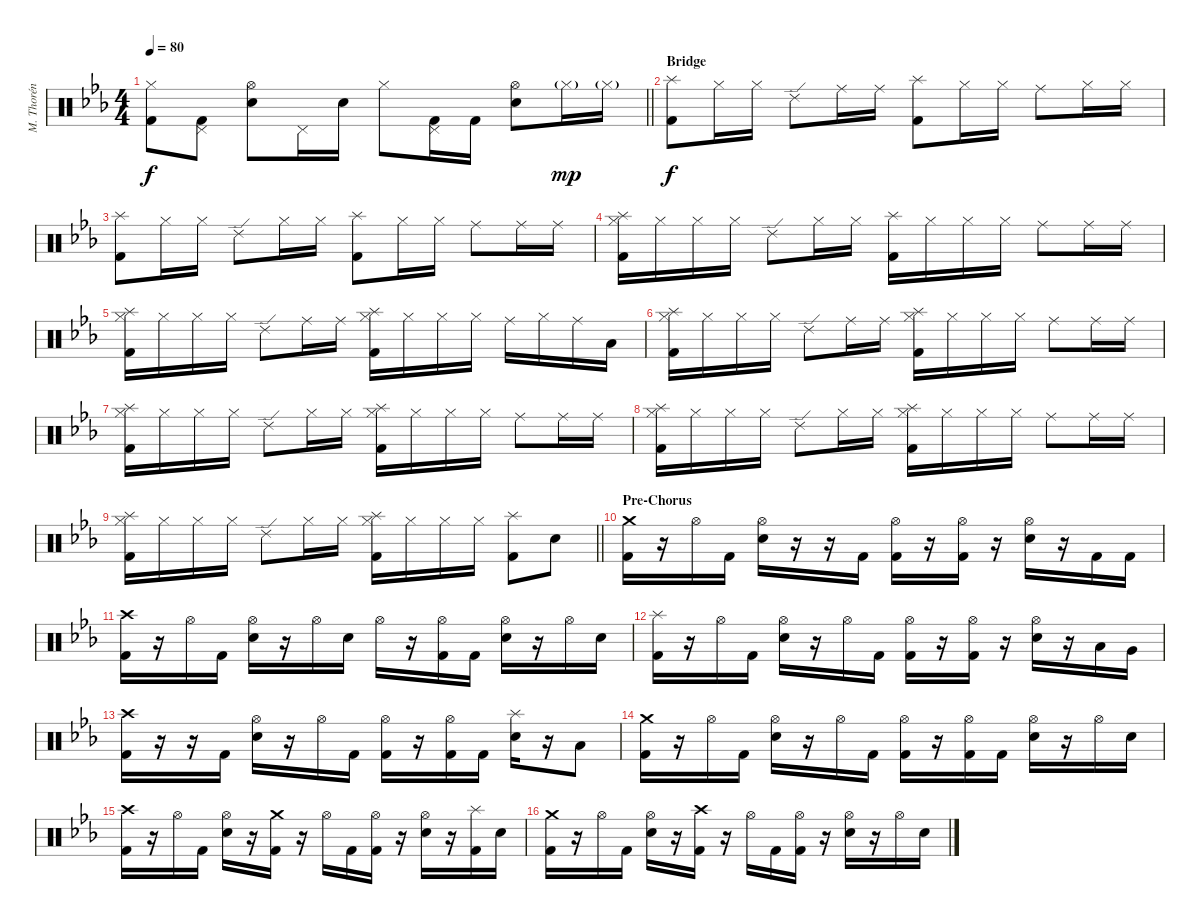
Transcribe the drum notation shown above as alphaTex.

\track ("M. Thorén (Drums)" "M. Thorén ") {instrument percussion}
\staff {score}
\articulation defaults
\ts (4 4)
\tempo 80
\clef neutral
\barLineRight lightlight
\ks eb
("Hi-Hat (closed)" "Kick (hit) 2").8{dy f} ("Pedal Hi-Hat (hit)" "Kick (hit) 2").8 ("Hi-Hat (open)" "Electric Snare (hit)").8 "Pedal Hi-Hat (hit)".16 "Electric Snare (hit)".16 "Hi-Hat (closed)".8 ("Pedal Hi-Hat (hit)" "Kick (hit) 2").16 "Kick (hit) 2".16 ("Hi-Hat (open)" "Electric Snare (hit)").8 "Hi-Hat (closed)"{g}.16{dy mp} "Hi-Hat (closed)"{g}.16 |
\section ("" "Bridge")
("Splash (hit)" "Kick (hit) 2").8{dy f} "Hi-Hat (closed)".16 "Hi-Hat (closed)".16 "Ride (edge) 2".8 "Ride (middle)".16 "Ride (middle)".16 ("Splash (hit)" "Kick (hit) 2").8 "Hi-Hat (closed)".16 "Hi-Hat (closed)".16 "Ride (middle)".8 "Hi-Hat (closed)".16 "Hi-Hat (closed)".16 |
("Splash (hit)" "Kick (hit) 2").8 "Hi-Hat (closed)".16 "Hi-Hat (closed)".16 "Ride (edge) 2".8 "Hi-Hat (closed)".16 "Hi-Hat (closed)".16 ("Splash (hit)" "Kick (hit) 2").8 "Hi-Hat (closed)".16 "Hi-Hat (closed)".16 "Ride (middle)".8 "Ride (middle)".16 "Ride (middle)".16 |
("Splash (hit)" "Hi-Hat (closed)" "Kick (hit) 2").16 "Hi-Hat (closed)".16 "Hi-Hat (closed)".16 "Hi-Hat (closed)".16 "Ride (edge) 2".8 "Hi-Hat (closed)".16 "Hi-Hat (closed)".16 ("Splash (hit)" "Kick (hit) 2").16 "Hi-Hat (closed)".16 "Hi-Hat (closed)".16 "Hi-Hat (closed)".16 "Ride (middle)".8 "Ride (middle)".16 "Ride (middle)".16 |
("Splash (hit)" "Hi-Hat (closed)" "Kick (hit) 2").16 "Hi-Hat (closed)".16 "Hi-Hat (closed)".16 "Hi-Hat (closed)".16 "Ride (edge) 2".8 "Ride (middle)".16 "Ride (middle)".16 ("Splash (hit)" "Hi-Hat (closed)" "Kick (hit) 2").16 "Hi-Hat (closed)".16 "Hi-Hat (closed)".16 "Hi-Hat (closed)".16 "Ride (middle)".16 "Hi-Hat (closed)".16 "Ride (middle)".16 "Low Tom (hit)".16 |
("Splash (hit)" "Hi-Hat (closed)" "Kick (hit) 2").16 "Hi-Hat (closed)".16 "Hi-Hat (closed)".16 "Hi-Hat (closed)".16 "Ride (edge) 2".8 "Ride (middle)".16 "Ride (middle)".16 ("Splash (hit)" "Hi-Hat (closed)" "Kick (hit) 2").16 "Hi-Hat (closed)".16 "Hi-Hat (closed)".16 "Hi-Hat (closed)".16 "Ride (middle)".8 "Ride (middle)".16 "Ride (middle)".16 |
("Splash (hit)" "Hi-Hat (closed)" "Kick (hit) 2").16 "Hi-Hat (closed)".16 "Hi-Hat (closed)".16 "Hi-Hat (closed)".16 "Ride (edge) 2".8 "Hi-Hat (closed)".16 "Hi-Hat (closed)".16 ("Splash (hit)" "Hi-Hat (closed)" "Kick (hit) 2").16 "Hi-Hat (closed)".16 "Hi-Hat (closed)".16 "Hi-Hat (closed)".16 "Ride (middle)".8 "Ride (middle)".16 "Ride (middle)".16 |
("Splash (hit)" "Hi-Hat (closed)" "Kick (hit) 2").16 "Hi-Hat (closed)".16 "Hi-Hat (closed)".16 "Hi-Hat (closed)".16 "Ride (edge) 2".8 "Hi-Hat (closed)".16 "Hi-Hat (closed)".16 ("Splash (hit)" "Hi-Hat (closed)" "Kick (hit) 2").16 "Hi-Hat (closed)".16 "Hi-Hat (closed)".16 "Hi-Hat (closed)".16 "Ride (middle)".8 "Ride (middle)".16 "Ride (middle)".16 |
\barLineRight lightlight
("Splash (hit)" "Hi-Hat (closed)" "Kick (hit) 2").16 "Hi-Hat (closed)".16 "Hi-Hat (closed)".16 "Hi-Hat (closed)".16 "Ride (edge) 2".8 "Hi-Hat (closed)".16 "Hi-Hat (closed)".16 ("Splash (hit)" "Hi-Hat (closed)" "Kick (hit) 2").16 "Hi-Hat (closed)".16 "Hi-Hat (closed)".16 "Hi-Hat (closed)".16 ("Splash (hit)" "Kick (hit) 2").8 "Electric Snare (hit)".8 |
\section ("" "Pre-Chorus")
("Crash medium (hit)" "Kick (hit) 2").16 r.16 "Hi-Hat (open)".16 "Kick (hit) 2".16 ("Hi-Hat (open)" "Electric Snare (hit)").16 r.16 r.16 "Kick (hit) 2".16 ("Hi-Hat (open)" "Kick (hit) 2").16 r.16 ("Hi-Hat (open)" "Kick (hit) 2").16 r.16 ("Hi-Hat (open)" "Electric Snare (hit)").16 r.16 "Kick (hit) 2".16 "Kick (hit) 2".16 |
("Crash high (hit)" "Kick (hit) 2").16 r.16 "Hi-Hat (open)".16 "Kick (hit) 2".16 ("Hi-Hat (open)" "Electric Snare (hit)").16 r.16 "Hi-Hat (open)".16 "Electric Snare (hit)".16 "Hi-Hat (open)".16 r.16 ("Hi-Hat (open)" "Kick (hit) 2").16 "Kick (hit) 2".16 ("Hi-Hat (open)" "Electric Snare (hit)").16 r.16 "Hi-Hat (open)".16 "Electric Snare (hit)".16 |
("Splash (hit)" "Kick (hit) 2").16 r.16 "Hi-Hat (open)".16 "Kick (hit) 2".16 ("Hi-Hat (open)" "Electric Snare (hit)").16 r.16 "Hi-Hat (open)".16 "Kick (hit) 2".16 ("Hi-Hat (open)" "Kick (hit) 2").16 r.16 ("Hi-Hat (open)" "Kick (hit) 2").16 r.16 ("Hi-Hat (open)" "Electric Snare (hit)").16 r.16 "Low Tom (hit)".16 "Very Low Tom (hit)".16 |
("Crash high (hit)" "Kick (hit) 2").16 r.16 r.16 "Kick (hit) 2".16 ("Hi-Hat (open)" "Electric Snare (hit)").16 r.16 "Hi-Hat (open)".16 "Kick (hit) 2".16 ("Hi-Hat (open)" "Kick (hit) 2").16 r.16 ("Hi-Hat (open)" "Kick (hit) 2").16 "Kick (hit) 2".16 ("Splash (hit)" "Electric Snare (hit)").16 r.16 "Low Tom (hit)".8 |
("Crash medium (hit)" "Kick (hit) 2").16 r.16 "Hi-Hat (open)".16 "Kick (hit) 2".16 ("Hi-Hat (open)" "Electric Snare (hit)").16 r.16 "Hi-Hat (open)".16 "Kick (hit) 2".16 ("Hi-Hat (open)" "Kick (hit) 2").16 r.16 ("Hi-Hat (open)" "Kick (hit) 2").16 "Kick (hit) 2".16 ("Hi-Hat (open)" "Electric Snare (hit)").16 r.16 "Hi-Hat (open)".16 "Electric Snare (hit)".16 |
("Crash high (hit)" "Kick (hit) 2").16 r.16 "Hi-Hat (open)".16 "Kick (hit) 2".16 ("Hi-Hat (open)" "Electric Snare (hit)").16 r.16 ("Crash medium (hit)" "Kick (hit) 2").16 r.16 "Hi-Hat (open)".16 "Kick (hit) 2".16 ("Hi-Hat (open)" "Kick (hit) 2").16 r.16 ("Hi-Hat (open)" "Electric Snare (hit)").16 r.16 ("Splash (hit)" "Kick (hit) 2").16 "Electric Snare (hit)".16 |
("Crash medium (hit)" "Kick (hit) 2").16 r.16 "Hi-Hat (open)".16 "Kick (hit) 2".16 ("Hi-Hat (open)" "Electric Snare (hit)").16 r.16 ("Crash high (hit)" "Kick (hit) 2").16 r.16 "Hi-Hat (open)".16 "Kick (hit) 2".16 ("Hi-Hat (open)" "Kick (hit) 2").16 r.16 ("Hi-Hat (open)" "Electric Snare (hit)").16 r.16 "Hi-Hat (open)".16 "Electric Snare (hit)".16
